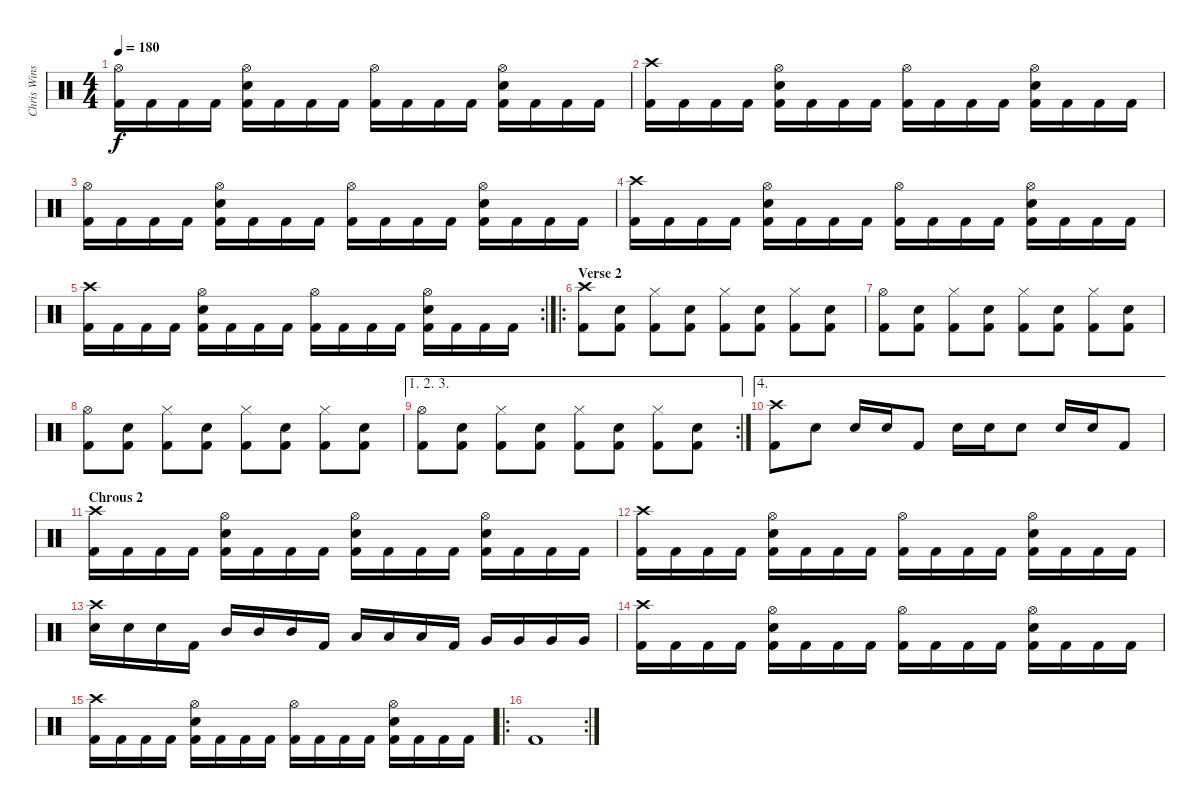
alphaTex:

\track ("Chris Winship (Drums)" "Chris Wins") {instrument percussion}
\staff {score}
\articulation defaults
\ts (4 4)
\tempo 180
\clef neutral
\ks c
("Hi-Hat (open)" "Kick (hit) 2").16{dy f} "Kick (hit) 2".16 "Kick (hit) 2".16 "Kick (hit) 2".16 ("Hi-Hat (open)" "Electric Snare (hit)" "Kick (hit) 2").16 "Kick (hit) 2".16 "Kick (hit) 2".16 "Kick (hit) 2".16 ("Hi-Hat (open)" "Kick (hit) 2").16 "Kick (hit) 2".16 "Kick (hit) 2".16 "Kick (hit) 2".16 ("Hi-Hat (open)" "Electric Snare (hit)" "Kick (hit) 2").16 "Kick (hit) 2".16 "Kick (hit) 2".16 "Kick (hit) 2".16 |
("Crash high (hit)" "Kick (hit) 2").16 "Kick (hit) 2".16 "Kick (hit) 2".16 "Kick (hit) 2".16 ("Hi-Hat (open)" "Electric Snare (hit)" "Kick (hit) 2").16 "Kick (hit) 2".16 "Kick (hit) 2".16 "Kick (hit) 2".16 ("Hi-Hat (open)" "Kick (hit) 2").16 "Kick (hit) 2".16 "Kick (hit) 2".16 "Kick (hit) 2".16 ("Hi-Hat (open)" "Electric Snare (hit)" "Kick (hit) 2").16 "Kick (hit) 2".16 "Kick (hit) 2".16 "Kick (hit) 2".16 |
("Hi-Hat (open)" "Kick (hit) 2").16 "Kick (hit) 2".16 "Kick (hit) 2".16 "Kick (hit) 2".16 ("Hi-Hat (open)" "Electric Snare (hit)" "Kick (hit) 2").16 "Kick (hit) 2".16 "Kick (hit) 2".16 "Kick (hit) 2".16 ("Hi-Hat (open)" "Kick (hit) 2").16 "Kick (hit) 2".16 "Kick (hit) 2".16 "Kick (hit) 2".16 ("Hi-Hat (open)" "Electric Snare (hit)" "Kick (hit) 2").16 "Kick (hit) 2".16 "Kick (hit) 2".16 "Kick (hit) 2".16 |
("Crash high (hit)" "Kick (hit) 2").16 "Kick (hit) 2".16 "Kick (hit) 2".16 "Kick (hit) 2".16 ("Hi-Hat (open)" "Electric Snare (hit)" "Kick (hit) 2").16 "Kick (hit) 2".16 "Kick (hit) 2".16 "Kick (hit) 2".16 ("Hi-Hat (open)" "Kick (hit) 2").16 "Kick (hit) 2".16 "Kick (hit) 2".16 "Kick (hit) 2".16 ("Hi-Hat (open)" "Electric Snare (hit)" "Kick (hit) 2").16 "Kick (hit) 2".16 "Kick (hit) 2".16 "Kick (hit) 2".16 |
\rc 2
("Crash high (hit)" "Kick (hit) 2").16 "Kick (hit) 2".16 "Kick (hit) 2".16 "Kick (hit) 2".16 ("Hi-Hat (open)" "Electric Snare (hit)" "Kick (hit) 2").16 "Kick (hit) 2".16 "Kick (hit) 2".16 "Kick (hit) 2".16 ("Hi-Hat (open)" "Kick (hit) 2").16 "Kick (hit) 2".16 "Kick (hit) 2".16 "Kick (hit) 2".16 ("Hi-Hat (open)" "Electric Snare (hit)" "Kick (hit) 2").16 "Kick (hit) 2".16 "Kick (hit) 2".16 "Kick (hit) 2".16 |
\ro
\section ("" "Verse 2")
("Crash high (hit)" "Kick (hit) 2").8 ("Electric Snare (hit)" "Kick (hit) 2").8 ("Hi-Hat (closed)" "Kick (hit) 2").8 ("Electric Snare (hit)" "Kick (hit) 2").8 ("Hi-Hat (closed)" "Kick (hit) 2").8 ("Electric Snare (hit)" "Kick (hit) 2").8 ("Hi-Hat (closed)" "Kick (hit) 2").8 ("Electric Snare (hit)" "Kick (hit) 2").8 |
("Hi-Hat (open)" "Kick (hit) 2").8 ("Electric Snare (hit)" "Kick (hit) 2").8 ("Hi-Hat (closed)" "Kick (hit) 2").8 ("Electric Snare (hit)" "Kick (hit) 2").8 ("Hi-Hat (closed)" "Kick (hit) 2").8 ("Electric Snare (hit)" "Kick (hit) 2").8 ("Hi-Hat (closed)" "Kick (hit) 2").8 ("Electric Snare (hit)" "Kick (hit) 2").8 |
("Hi-Hat (open)" "Kick (hit) 2").8 ("Electric Snare (hit)" "Kick (hit) 2").8 ("Hi-Hat (closed)" "Kick (hit) 2").8 ("Electric Snare (hit)" "Kick (hit) 2").8 ("Hi-Hat (closed)" "Kick (hit) 2").8 ("Electric Snare (hit)" "Kick (hit) 2").8 ("Hi-Hat (closed)" "Kick (hit) 2").8 ("Electric Snare (hit)" "Kick (hit) 2").8 |
\ae (1 2 3)
\rc 2
("Hi-Hat (open)" "Kick (hit) 2").8 ("Electric Snare (hit)" "Kick (hit) 2").8 ("Hi-Hat (closed)" "Kick (hit) 2").8 ("Electric Snare (hit)" "Kick (hit) 2").8 ("Hi-Hat (closed)" "Kick (hit) 2").8 ("Electric Snare (hit)" "Kick (hit) 2").8 ("Hi-Hat (closed)" "Kick (hit) 2").8 ("Electric Snare (hit)" "Kick (hit) 2").8 |
\ae 4
("Crash high (hit)" "Kick (hit) 2").8 "Electric Snare (hit)".8 "Electric Snare (hit)".16 "Electric Snare (hit)".16 "Kick (hit) 2".8 "Electric Snare (hit)".16 "Electric Snare (hit)".16 "Electric Snare (hit)".8 "Electric Snare (hit)".16 "Electric Snare (hit)".16 "Kick (hit) 2".8 |
\section ("" "Chrous 2")
("Crash high (hit)" "Kick (hit) 2").16 "Kick (hit) 2".16 "Kick (hit) 2".16 "Kick (hit) 2".16 ("Hi-Hat (open)" "Electric Snare (hit)" "Kick (hit) 2").16 "Kick (hit) 2".16 "Kick (hit) 2".16 "Kick (hit) 2".16 ("Hi-Hat (open)" "Electric Snare (hit)" "Kick (hit) 2").16 "Kick (hit) 2".16 "Kick (hit) 2".16 "Kick (hit) 2".16 ("Hi-Hat (open)" "Electric Snare (hit)" "Kick (hit) 2").16 "Kick (hit) 2".16 "Kick (hit) 2".16 "Kick (hit) 2".16 |
("Crash high (hit)" "Kick (hit) 2").16 "Kick (hit) 2".16 "Kick (hit) 2".16 "Kick (hit) 2".16 ("Hi-Hat (open)" "Electric Snare (hit)" "Kick (hit) 2").16 "Kick (hit) 2".16 "Kick (hit) 2".16 "Kick (hit) 2".16 ("Hi-Hat (open)" "Kick (hit) 2").16 "Kick (hit) 2".16 "Kick (hit) 2".16 "Kick (hit) 2".16 ("Hi-Hat (open)" "Electric Snare (hit)" "Kick (hit) 2").16 "Kick (hit) 2".16 "Kick (hit) 2".16 "Kick (hit) 2".16 |
("Crash high (hit)" "Electric Snare (hit)").16 "Electric Snare (hit)".16 "Electric Snare (hit)".16 "Kick (hit) 2".16 "Mid Tom (hit)".16 "Mid Tom (hit)".16 "Mid Tom (hit)".16 "Kick (hit) 2".16 "Low Tom (hit)".16 "Low Tom (hit)".16 "Low Tom (hit)".16 "Kick (hit) 2".16 "Very Low Tom (hit)".16 "Very Low Tom (hit)".16 "Very Low Tom (hit)".16 "Very Low Tom (hit)".16 |
("Crash high (hit)" "Kick (hit) 2").16 "Kick (hit) 2".16 "Kick (hit) 2".16 "Kick (hit) 2".16 ("Hi-Hat (open)" "Electric Snare (hit)" "Kick (hit) 2").16 "Kick (hit) 2".16 "Kick (hit) 2".16 "Kick (hit) 2".16 ("Hi-Hat (open)" "Kick (hit) 2").16 "Kick (hit) 2".16 "Kick (hit) 2".16 "Kick (hit) 2".16 ("Hi-Hat (open)" "Electric Snare (hit)" "Kick (hit) 2").16 "Kick (hit) 2".16 "Kick (hit) 2".16 "Kick (hit) 2".16 |
("Crash high (hit)" "Kick (hit) 2").16 "Kick (hit) 2".16 "Kick (hit) 2".16 "Kick (hit) 2".16 ("Hi-Hat (open)" "Electric Snare (hit)" "Kick (hit) 2").16 "Kick (hit) 2".16 "Kick (hit) 2".16 "Kick (hit) 2".16 ("Hi-Hat (open)" "Kick (hit) 2").16 "Kick (hit) 2".16 "Kick (hit) 2".16 "Kick (hit) 2".16 ("Hi-Hat (open)" "Electric Snare (hit)" "Kick (hit) 2").16 "Kick (hit) 2".16 "Kick (hit) 2".16 "Kick (hit) 2".16 |
\ro
\rc 2 "Kick (hit) 2".1
